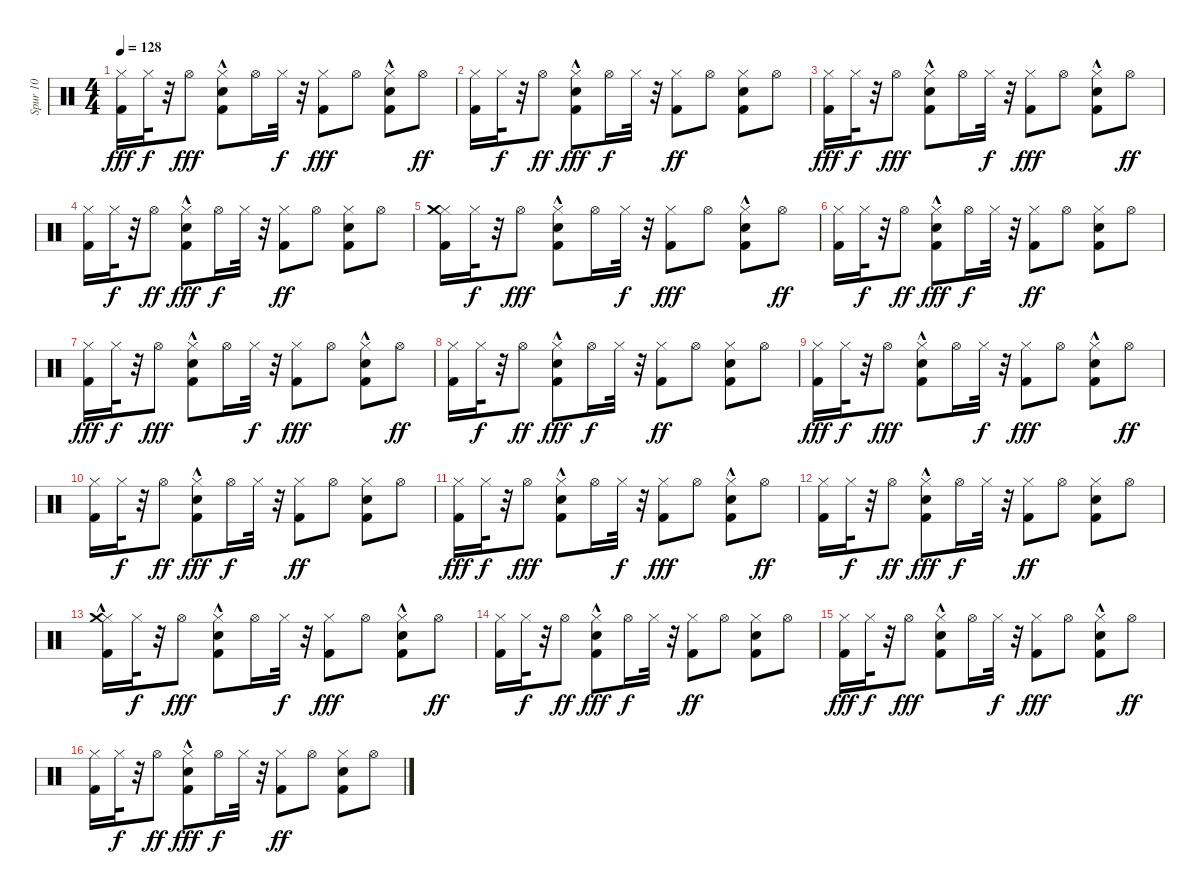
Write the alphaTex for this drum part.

\track ("Spur 10" "Spur 10") {instrument percussion}
\staff {score}
\articulation defaults
\ts (4 4)
\tempo 128
\clef neutral
\ks c
("Kick (hit) 2" "Hi-Hat (closed)").16{dy fff} "Hi-Hat (closed)".32{dy f} r.32 "Hi-Hat (open)".8{dy fff} ("Kick (hit) 2"{hac} "Hi-Hat (closed)" "Hand Clap (hit)").8 "Hi-Hat (open)".16 "Hi-Hat (closed)".32{dy f} r.32 ("Hi-Hat (closed)" "Kick (hit) 2").8{dy fff} "Hi-Hat (open)".8 ("Hi-Hat (closed)" "Hand Clap (hit)" "Kick (hit) 2"{hac}).8 "Hi-Hat (open)".8{dy ff} |
("Kick (hit) 2" "Hi-Hat (closed)").16 "Hi-Hat (closed)".32{dy f} r.32 "Hi-Hat (open)".8{dy ff} ("Hand Clap (hit)" "Hi-Hat (closed)" "Kick (hit) 2"{hac}).8{dy fff} "Hi-Hat (open)".16{dy f} "Hi-Hat (closed)".32 r.32 ("Kick (hit) 2" "Hi-Hat (closed)").8{dy ff} "Hi-Hat (open)".8 ("Kick (hit) 2" "Hand Clap (hit)" "Hi-Hat (closed)").8 "Hi-Hat (open)".8 |
("Kick (hit) 2" "Hi-Hat (closed)").16{dy fff} "Hi-Hat (closed)".32{dy f} r.32 "Hi-Hat (open)".8{dy fff} ("Kick (hit) 2"{hac} "Hi-Hat (closed)" "Hand Clap (hit)").8 "Hi-Hat (open)".16 "Hi-Hat (closed)".32{dy f} r.32 ("Hi-Hat (closed)" "Kick (hit) 2").8{dy fff} "Hi-Hat (open)".8 ("Hi-Hat (closed)" "Hand Clap (hit)" "Kick (hit) 2"{hac}).8 "Hi-Hat (open)".8{dy ff} |
("Kick (hit) 2" "Hi-Hat (closed)").16 "Hi-Hat (closed)".32{dy f} r.32 "Hi-Hat (open)".8{dy ff} ("Hand Clap (hit)" "Hi-Hat (closed)" "Kick (hit) 2"{hac}).8{dy fff} "Hi-Hat (open)".16{dy f} "Hi-Hat (closed)".32 r.32 ("Kick (hit) 2" "Hi-Hat (closed)").8{dy ff} "Hi-Hat (open)".8 ("Kick (hit) 2" "Hand Clap (hit)" "Hi-Hat (closed)").8 "Hi-Hat (open)".8 |
("Kick (hit) 2" "Hi-Hat (closed)" "Crash medium (hit)").16 "Hi-Hat (closed)".32{dy f} r.32 "Hi-Hat (open)".8{dy fff} ("Kick (hit) 2"{hac} "Hi-Hat (closed)" "Hand Clap (hit)").8 "Hi-Hat (open)".16 "Hi-Hat (closed)".32{dy f} r.32 ("Hi-Hat (closed)" "Kick (hit) 2").8{dy fff} "Hi-Hat (open)".8 ("Hi-Hat (closed)" "Hand Clap (hit)" "Kick (hit) 2"{hac}).8 "Hi-Hat (open)".8{dy ff} |
("Kick (hit) 2" "Hi-Hat (closed)").16 "Hi-Hat (closed)".32{dy f} r.32 "Hi-Hat (open)".8{dy ff} ("Hand Clap (hit)" "Hi-Hat (closed)" "Kick (hit) 2"{hac}).8{dy fff} "Hi-Hat (open)".16{dy f} "Hi-Hat (closed)".32 r.32 ("Kick (hit) 2" "Hi-Hat (closed)").8{dy ff} "Hi-Hat (open)".8 ("Kick (hit) 2" "Hand Clap (hit)" "Hi-Hat (closed)").8 "Hi-Hat (open)".8 |
("Kick (hit) 2" "Hi-Hat (closed)").16{dy fff} "Hi-Hat (closed)".32{dy f} r.32 "Hi-Hat (open)".8{dy fff} ("Kick (hit) 2"{hac} "Hi-Hat (closed)" "Hand Clap (hit)").8 "Hi-Hat (open)".16 "Hi-Hat (closed)".32{dy f} r.32 ("Hi-Hat (closed)" "Kick (hit) 2").8{dy fff} "Hi-Hat (open)".8 ("Hi-Hat (closed)" "Hand Clap (hit)" "Kick (hit) 2"{hac}).8 "Hi-Hat (open)".8{dy ff} |
("Kick (hit) 2" "Hi-Hat (closed)").16 "Hi-Hat (closed)".32{dy f} r.32 "Hi-Hat (open)".8{dy ff} ("Hand Clap (hit)" "Hi-Hat (closed)" "Kick (hit) 2"{hac}).8{dy fff} "Hi-Hat (open)".16{dy f} "Hi-Hat (closed)".32 r.32 ("Kick (hit) 2" "Hi-Hat (closed)").8{dy ff} "Hi-Hat (open)".8 ("Kick (hit) 2" "Hand Clap (hit)" "Hi-Hat (closed)").8 "Hi-Hat (open)".8 |
("Kick (hit) 2" "Hi-Hat (closed)").16{dy fff} "Hi-Hat (closed)".32{dy f} r.32 "Hi-Hat (open)".8{dy fff} ("Kick (hit) 2"{hac} "Hi-Hat (closed)" "Hand Clap (hit)").8 "Hi-Hat (open)".16 "Hi-Hat (closed)".32{dy f} r.32 ("Hi-Hat (closed)" "Kick (hit) 2").8{dy fff} "Hi-Hat (open)".8 ("Hi-Hat (closed)" "Hand Clap (hit)" "Kick (hit) 2"{hac}).8 "Hi-Hat (open)".8{dy ff} |
("Kick (hit) 2" "Hi-Hat (closed)").16 "Hi-Hat (closed)".32{dy f} r.32 "Hi-Hat (open)".8{dy ff} ("Hand Clap (hit)" "Hi-Hat (closed)" "Kick (hit) 2"{hac}).8{dy fff} "Hi-Hat (open)".16{dy f} "Hi-Hat (closed)".32 r.32 ("Kick (hit) 2" "Hi-Hat (closed)").8{dy ff} "Hi-Hat (open)".8 ("Kick (hit) 2" "Hand Clap (hit)" "Hi-Hat (closed)").8 "Hi-Hat (open)".8 |
("Kick (hit) 2" "Hi-Hat (closed)").16{dy fff} "Hi-Hat (closed)".32{dy f} r.32 "Hi-Hat (open)".8{dy fff} ("Kick (hit) 2"{hac} "Hi-Hat (closed)" "Hand Clap (hit)").8 "Hi-Hat (open)".16 "Hi-Hat (closed)".32{dy f} r.32 ("Hi-Hat (closed)" "Kick (hit) 2").8{dy fff} "Hi-Hat (open)".8 ("Hi-Hat (closed)" "Hand Clap (hit)" "Kick (hit) 2"{hac}).8 "Hi-Hat (open)".8{dy ff} |
("Kick (hit) 2" "Hi-Hat (closed)").16 "Hi-Hat (closed)".32{dy f} r.32 "Hi-Hat (open)".8{dy ff} ("Hand Clap (hit)" "Hi-Hat (closed)" "Kick (hit) 2"{hac}).8{dy fff} "Hi-Hat (open)".16{dy f} "Hi-Hat (closed)".32 r.32 ("Kick (hit) 2" "Hi-Hat (closed)").8{dy ff} "Hi-Hat (open)".8 ("Kick (hit) 2" "Hand Clap (hit)" "Hi-Hat (closed)").8 "Hi-Hat (open)".8 |
("Kick (hit) 2" "Hi-Hat (closed)" "Crash medium (hit)"{hac}).16 "Hi-Hat (closed)".32{dy f} r.32 "Hi-Hat (open)".8{dy fff} ("Kick (hit) 2"{hac} "Hi-Hat (closed)" "Hand Clap (hit)").8 "Hi-Hat (open)".16 "Hi-Hat (closed)".32{dy f} r.32 ("Hi-Hat (closed)" "Kick (hit) 2").8{dy fff} "Hi-Hat (open)".8 ("Hi-Hat (closed)" "Hand Clap (hit)" "Kick (hit) 2"{hac}).8 "Hi-Hat (open)".8{dy ff} |
("Kick (hit) 2" "Hi-Hat (closed)").16 "Hi-Hat (closed)".32{dy f} r.32 "Hi-Hat (open)".8{dy ff} ("Hand Clap (hit)" "Hi-Hat (closed)" "Kick (hit) 2"{hac}).8{dy fff} "Hi-Hat (open)".16{dy f} "Hi-Hat (closed)".32 r.32 ("Kick (hit) 2" "Hi-Hat (closed)").8{dy ff} "Hi-Hat (open)".8 ("Kick (hit) 2" "Hand Clap (hit)" "Hi-Hat (closed)").8 "Hi-Hat (open)".8 |
("Kick (hit) 2" "Hi-Hat (closed)").16{dy fff} "Hi-Hat (closed)".32{dy f} r.32 "Hi-Hat (open)".8{dy fff} ("Kick (hit) 2"{hac} "Hi-Hat (closed)" "Hand Clap (hit)").8 "Hi-Hat (open)".16 "Hi-Hat (closed)".32{dy f} r.32 ("Hi-Hat (closed)" "Kick (hit) 2").8{dy fff} "Hi-Hat (open)".8 ("Hi-Hat (closed)" "Hand Clap (hit)" "Kick (hit) 2"{hac}).8 "Hi-Hat (open)".8{dy ff} |
("Kick (hit) 2" "Hi-Hat (closed)").16 "Hi-Hat (closed)".32{dy f} r.32 "Hi-Hat (open)".8{dy ff} ("Hand Clap (hit)" "Hi-Hat (closed)" "Kick (hit) 2"{hac}).8{dy fff} "Hi-Hat (open)".16{dy f} "Hi-Hat (closed)".32 r.32 ("Kick (hit) 2" "Hi-Hat (closed)").8{dy ff} "Hi-Hat (open)".8 ("Kick (hit) 2" "Hand Clap (hit)" "Hi-Hat (closed)").8 "Hi-Hat (open)".8
